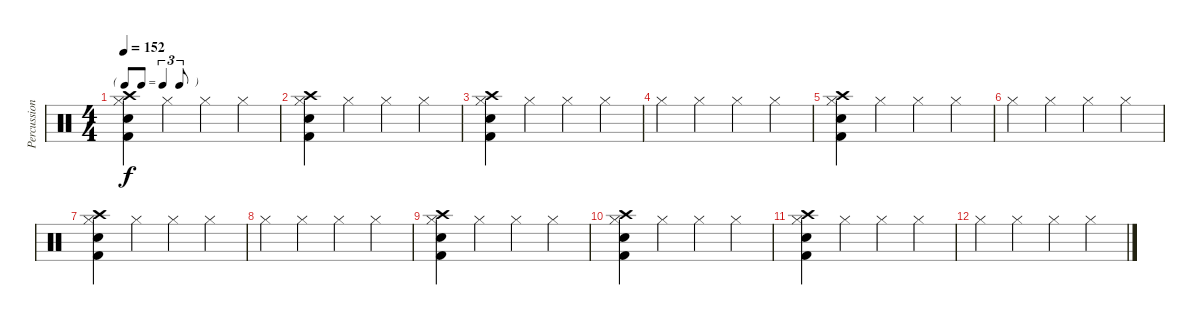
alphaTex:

\track ("Percussion" "Percussion") {instrument percussion}
\staff {score}
\articulation defaults
\ts (4 4)
\tf triplet8th
\tempo 152
\clef neutral
\ks c
("Crash high (hit)" "Hi-Hat (closed)" "Electric Snare (hit)" "Kick (hit) 2").4{dy f} "Hi-Hat (closed)".4 "Hi-Hat (closed)".4 "Hi-Hat (closed)".4 |
("Crash high (hit)" "Hi-Hat (closed)" "Electric Snare (hit)" "Kick (hit) 2").4 "Hi-Hat (closed)".4 "Hi-Hat (closed)".4 "Hi-Hat (closed)".4 |
("Crash high (hit)" "Hi-Hat (closed)" "Electric Snare (hit)" "Kick (hit) 2").4 "Hi-Hat (closed)".4 "Hi-Hat (closed)".4 "Hi-Hat (closed)".4 |
"Hi-Hat (closed)".4 "Hi-Hat (closed)".4 "Hi-Hat (closed)".4 "Hi-Hat (closed)".4 |
("Crash high (hit)" "Hi-Hat (closed)" "Electric Snare (hit)" "Kick (hit) 2").4 "Hi-Hat (closed)".4 "Hi-Hat (closed)".4 "Hi-Hat (closed)".4 |
"Hi-Hat (closed)".4 "Hi-Hat (closed)".4 "Hi-Hat (closed)".4 "Hi-Hat (closed)".4 |
("Crash high (hit)" "Hi-Hat (closed)" "Electric Snare (hit)" "Kick (hit) 2").4 "Hi-Hat (closed)".4 "Hi-Hat (closed)".4 "Hi-Hat (closed)".4 |
"Hi-Hat (closed)".4 "Hi-Hat (closed)".4 "Hi-Hat (closed)".4 "Hi-Hat (closed)".4 |
("Crash high (hit)" "Hi-Hat (closed)" "Electric Snare (hit)" "Kick (hit) 2").4 "Hi-Hat (closed)".4 "Hi-Hat (closed)".4 "Hi-Hat (closed)".4 |
("Crash high (hit)" "Hi-Hat (closed)" "Electric Snare (hit)" "Kick (hit) 2").4 "Hi-Hat (closed)".4 "Hi-Hat (closed)".4 "Hi-Hat (closed)".4 |
("Crash high (hit)" "Hi-Hat (closed)" "Electric Snare (hit)" "Kick (hit) 2").4 "Hi-Hat (closed)".4 "Hi-Hat (closed)".4 "Hi-Hat (closed)".4 |
"Hi-Hat (closed)".4 "Hi-Hat (closed)".4 "Hi-Hat (closed)".4 "Hi-Hat (closed)".4
